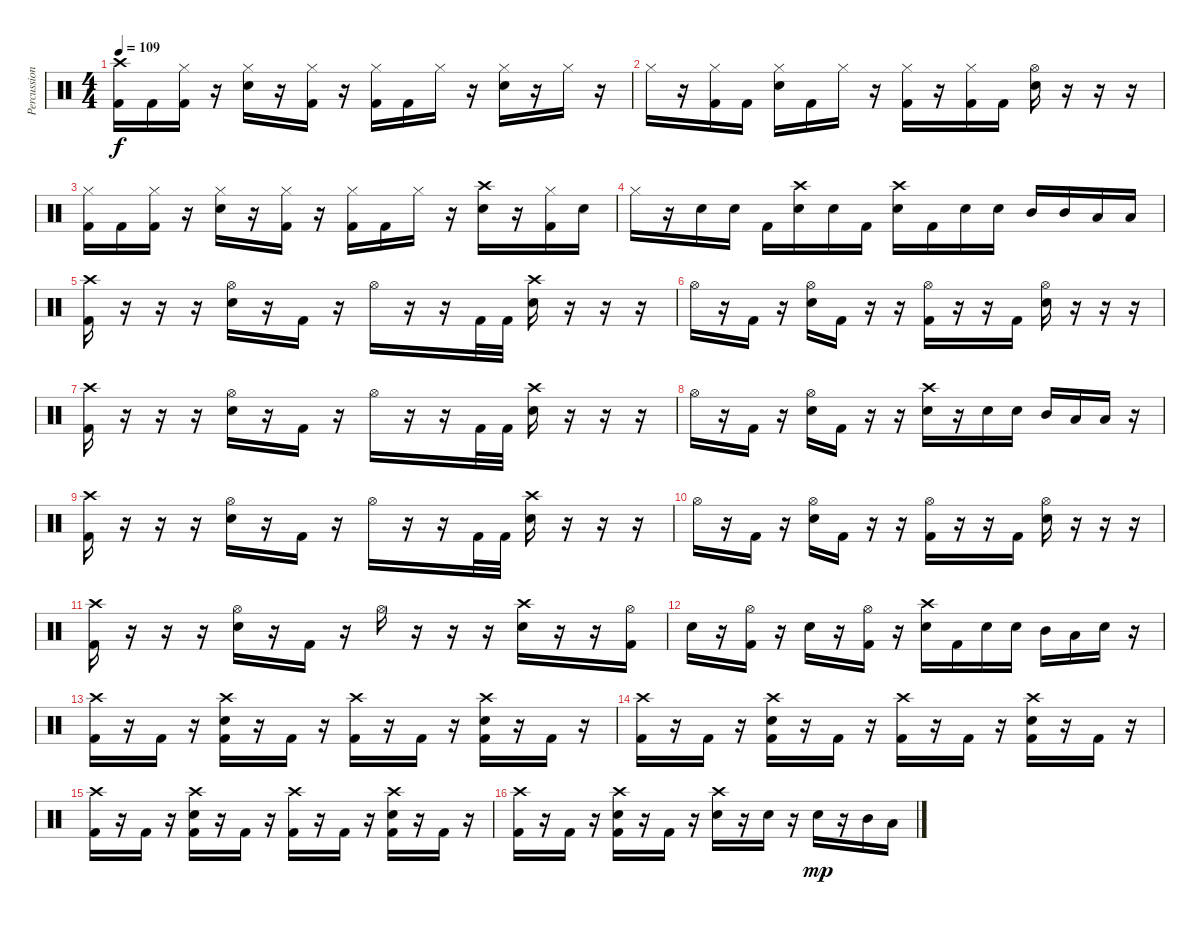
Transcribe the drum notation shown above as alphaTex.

\track ("Percussion" "Percussion") {instrument percussion}
\staff {score}
\articulation defaults
\ts (4 4)
\tempo 109
\clef neutral
\ks c
("Crash high (hit)" "Kick (hit) 2").16{dy f} "Kick (hit) 2".16 ("Hi-Hat (closed)" "Kick (hit) 2").16 r.16 ("Hi-Hat (closed)" "Snare (hit) 2").16 r.16 ("Hi-Hat (closed)" "Kick (hit) 2").16 r.16 ("Hi-Hat (closed)" "Kick (hit) 2").16 "Kick (hit) 2".16 "Hi-Hat (closed)".16 r.16 ("Hi-Hat (closed)" "Snare (hit) 2").16 r.16 "Hi-Hat (closed)".16 r.16 |
"Hi-Hat (closed)".16 r.16 ("Hi-Hat (closed)" "Kick (hit) 2").16 "Kick (hit) 2".16 ("Hi-Hat (closed)" "Snare (hit) 2").16 "Kick (hit) 2".16 "Hi-Hat (closed)".16 r.16 ("Hi-Hat (closed)" "Kick (hit) 2").16 r.16 ("Hi-Hat (closed)" "Kick (hit) 2").16 "Kick (hit) 2".16 ("Hi-Hat (open)" "Snare (hit) 2").16 r.16 r.16 r.16 |
("Hi-Hat (closed)" "Kick (hit) 2").16 "Kick (hit) 2".16 ("Hi-Hat (closed)" "Kick (hit) 2").16 r.16 ("Hi-Hat (closed)" "Snare (hit) 2").16 r.16 ("Hi-Hat (closed)" "Kick (hit) 2").16 r.16 ("Hi-Hat (closed)" "Kick (hit) 2").16 "Kick (hit) 2".16 "Hi-Hat (closed)".16 r.16 ("Crash high (hit)" "Snare (hit) 2").16 r.16 ("Hi-Hat (closed)" "Kick (hit) 2").16 "Snare (hit) 2".16 |
"Hi-Hat (closed)".16 r.16 "Snare (hit) 2".16 "Snare (hit) 2".16 "Kick (hit) 2".16 ("Crash high (hit)" "Snare (hit) 2").16 "Snare (hit) 2".16 "Kick (hit) 2".16 ("Crash high (hit)" "Snare (hit) 2").16 "Kick (hit) 2".16 "Snare (hit) 2".16 "Snare (hit) 2".16 "Mid Tom (hit)".16 "Mid Tom (hit)".16 "Low Tom (hit)".16 "Low Tom (hit)".16 |
("Crash high (hit)" "Kick (hit) 2").16 r.16 r.16 r.16 ("Hi-Hat (open)" "Snare (hit) 2").16 r.16 "Kick (hit) 2".16 r.16 "Hi-Hat (open)".16 r.16 r.16 "Kick (hit) 2".32 "Kick (hit) 2".32 ("Crash high (hit)" "Snare (hit) 2").16 r.16 r.16 r.16 |
"Hi-Hat (open)".16 r.16 "Kick (hit) 2".16 r.16 ("Hi-Hat (open)" "Snare (hit) 2").16 "Kick (hit) 2".16 r.16 r.16 ("Hi-Hat (open)" "Kick (hit) 2").16 r.16 r.16 "Kick (hit) 2".16 ("Hi-Hat (open)" "Snare (hit) 2").16 r.16 r.16 r.16 |
("Crash high (hit)" "Kick (hit) 2").16 r.16 r.16 r.16 ("Hi-Hat (open)" "Snare (hit) 2").16 r.16 "Kick (hit) 2".16 r.16 "Hi-Hat (open)".16 r.16 r.16 "Kick (hit) 2".32 "Kick (hit) 2".32 ("Crash high (hit)" "Snare (hit) 2").16 r.16 r.16 r.16 |
"Hi-Hat (open)".16 r.16 "Kick (hit) 2".16 r.16 ("Hi-Hat (open)" "Snare (hit) 2").16 "Kick (hit) 2".16 r.16 r.16 ("Crash high (hit)" "Snare (hit) 2").16 r.16 "Snare (hit) 2".16 "Snare (hit) 2".16 "Mid Tom (hit)".16 "Low Tom (hit)".16 "Low Tom (hit)".16 r.16 |
("Crash high (hit)" "Kick (hit) 2").16 r.16 r.16 r.16 ("Hi-Hat (open)" "Snare (hit) 2").16 r.16 "Kick (hit) 2".16 r.16 "Hi-Hat (open)".16 r.16 r.16 "Kick (hit) 2".32 "Kick (hit) 2".32 ("Crash high (hit)" "Snare (hit) 2").16 r.16 r.16 r.16 |
"Hi-Hat (open)".16 r.16 "Kick (hit) 2".16 r.16 ("Hi-Hat (open)" "Snare (hit) 2").16 "Kick (hit) 2".16 r.16 r.16 ("Hi-Hat (open)" "Kick (hit) 2").16 r.16 r.16 "Kick (hit) 2".16 ("Hi-Hat (open)" "Snare (hit) 2").16 r.16 r.16 r.16 |
("Crash high (hit)" "Kick (hit) 2").16 r.16 r.16 r.16 ("Hi-Hat (open)" "Snare (hit) 2").16 r.16 "Kick (hit) 2".16 r.16 "Hi-Hat (open)".16 r.16 r.16 r.16 ("Crash high (hit)" "Snare (hit) 2").16 r.16 r.16 ("Hi-Hat (open)" "Kick (hit) 2").16 |
"Snare (hit) 2".16 r.16 ("Hi-Hat (open)" "Kick (hit) 2").16 r.16 "Snare (hit) 2".16 r.16 ("Hi-Hat (open)" "Kick (hit) 2").16 r.16 ("Crash high (hit)" "Snare (hit) 2").16 "Kick (hit) 2".16 "Snare (hit) 2".16 "Snare (hit) 2".16 "Mid Tom (hit)".16 "Low Tom (hit)".16 "Snare (hit) 2".16 r.16 |
("Crash high (hit)" "Kick (hit) 2").16 r.16 "Kick (hit) 2".16 r.16 ("Crash high (hit)" "Snare (hit) 2" "Kick (hit) 2").16 r.16 "Kick (hit) 2".16 r.16 ("Crash high (hit)" "Kick (hit) 2").16 r.16 "Kick (hit) 2".16 r.16 ("Crash high (hit)" "Snare (hit) 2" "Kick (hit) 2").16 r.16 "Kick (hit) 2".16 r.16 |
("Crash high (hit)" "Kick (hit) 2").16 r.16 "Kick (hit) 2".16 r.16 ("Crash high (hit)" "Snare (hit) 2" "Kick (hit) 2").16 r.16 "Kick (hit) 2".16 r.16 ("Crash high (hit)" "Kick (hit) 2").16 r.16 "Kick (hit) 2".16 r.16 ("Crash high (hit)" "Snare (hit) 2" "Kick (hit) 2").16 r.16 "Kick (hit) 2".16 r.16 |
("Crash high (hit)" "Kick (hit) 2").16 r.16 "Kick (hit) 2".16 r.16 ("Crash high (hit)" "Snare (hit) 2" "Kick (hit) 2").16 r.16 "Kick (hit) 2".16 r.16 ("Crash high (hit)" "Kick (hit) 2").16 r.16 "Kick (hit) 2".16 r.16 ("Crash high (hit)" "Snare (hit) 2" "Kick (hit) 2").16 r.16 "Kick (hit) 2".16 r.16 |
("Crash high (hit)" "Kick (hit) 2").16 r.16 "Kick (hit) 2".16 r.16 ("Crash high (hit)" "Snare (hit) 2" "Kick (hit) 2").16 r.16 "Kick (hit) 2".16 r.16 ("Crash high (hit)" "Snare (hit) 2").16 r.16 "Snare (hit) 2".16 r.16 "Snare (hit) 2".16{dy mp} r.16 "Mid Tom (hit)".16 "Low Tom (hit)".16
